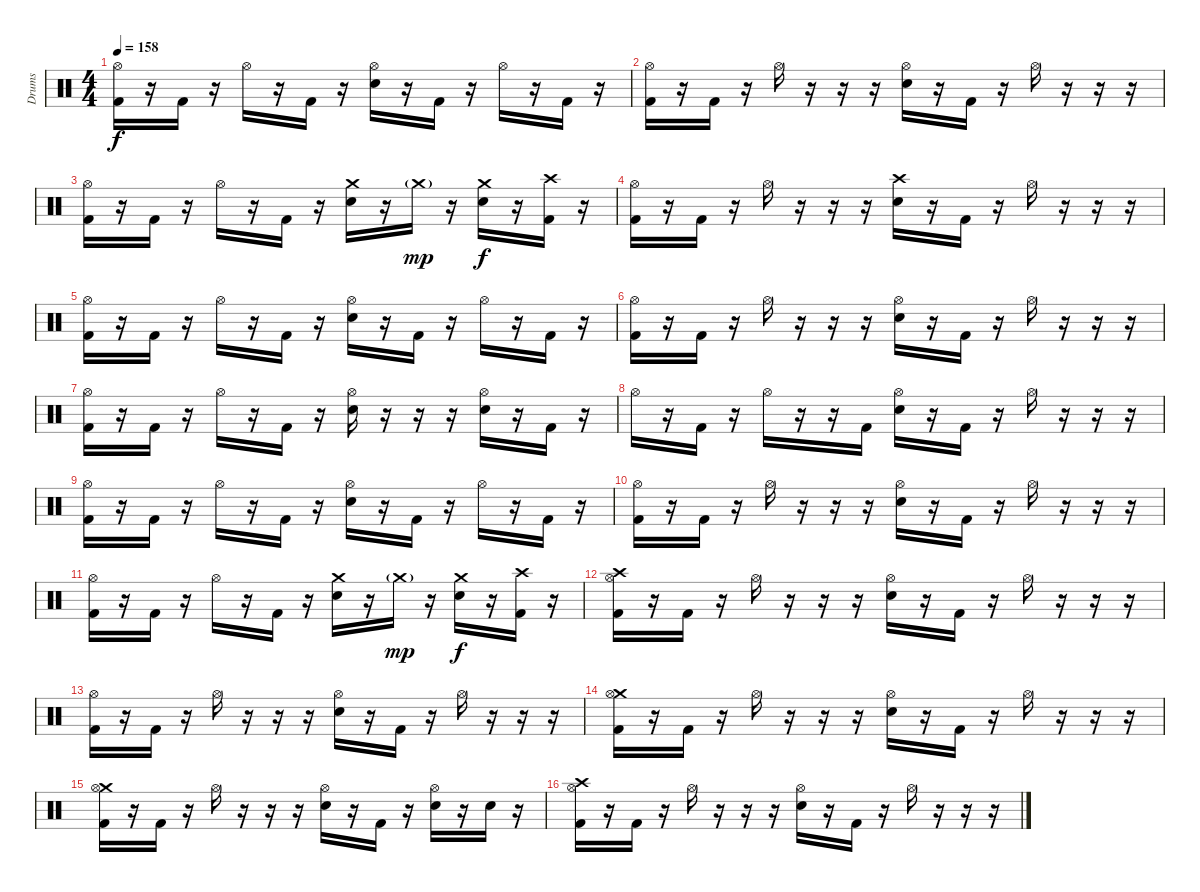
\track ("Drums" "Drums") {instrument percussion}
\staff {score}
\articulation defaults
\ts (4 4)
\tempo 158
\clef neutral
\ks c
("Hi-Hat (open)" "Kick (hit) 2").16{dy f} r.16 "Kick (hit) 2".16 r.16 "Hi-Hat (open)".16 r.16 "Kick (hit) 2".16 r.16 ("Hi-Hat (open)" "Snare (hit) 2").16 r.16 "Kick (hit) 2".16 r.16 "Hi-Hat (open)".16 r.16 "Kick (hit) 2".16 r.16 |
("Hi-Hat (open)" "Kick (hit) 2").16 r.16 "Kick (hit) 2".16 r.16 "Hi-Hat (open)".16 r.16 r.16 r.16 ("Hi-Hat (open)" "Snare (hit) 2").16 r.16 "Kick (hit) 2".16 r.16 "Hi-Hat (open)".16 r.16 r.16 r.16 |
("Hi-Hat (open)" "Kick (hit) 2").16 r.16 "Kick (hit) 2".16 r.16 "Hi-Hat (open)".16 r.16 "Kick (hit) 2".16 r.16 ("Crash medium (hit)" "Snare (hit) 2").16 r.16 "Crash medium (hit)"{g}.16{dy mp} r.16 ("Crash medium (hit)" "Snare (hit) 2").16{dy f} r.16 ("Crash high (hit)" "Kick (hit) 2").16 r.16 |
("Hi-Hat (open)" "Kick (hit) 2").16 r.16 "Kick (hit) 2".16 r.16 "Hi-Hat (open)".16 r.16 r.16 r.16 ("Crash high (hit)" "Snare (hit) 2").16 r.16 "Kick (hit) 2".16 r.16 "Hi-Hat (open)".16 r.16 r.16 r.16 |
("Hi-Hat (open)" "Kick (hit) 2").16 r.16 "Kick (hit) 2".16 r.16 "Hi-Hat (open)".16 r.16 "Kick (hit) 2".16 r.16 ("Hi-Hat (open)" "Snare (hit) 2").16 r.16 "Kick (hit) 2".16 r.16 "Hi-Hat (open)".16 r.16 "Kick (hit) 2".16 r.16 |
("Hi-Hat (open)" "Kick (hit) 2").16 r.16 "Kick (hit) 2".16 r.16 "Hi-Hat (open)".16 r.16 r.16 r.16 ("Hi-Hat (open)" "Snare (hit) 2").16 r.16 "Kick (hit) 2".16 r.16 "Hi-Hat (open)".16 r.16 r.16 r.16 |
("Hi-Hat (open)" "Kick (hit) 2").16 r.16 "Kick (hit) 2".16 r.16 "Hi-Hat (open)".16 r.16 "Kick (hit) 2".16 r.16 ("Hi-Hat (open)" "Snare (hit) 2").16 r.16 r.16 r.16 ("Hi-Hat (open)" "Snare (hit) 2").16 r.16 "Kick (hit) 2".16 r.16 |
"Hi-Hat (open)".16 r.16 "Kick (hit) 2".16 r.16 "Hi-Hat (open)".16 r.16 r.16 "Kick (hit) 2".16 ("Hi-Hat (open)" "Snare (hit) 2").16 r.16 "Kick (hit) 2".16 r.16 "Hi-Hat (open)".16 r.16 r.16 r.16 |
("Hi-Hat (open)" "Kick (hit) 2").16 r.16 "Kick (hit) 2".16 r.16 "Hi-Hat (open)".16 r.16 "Kick (hit) 2".16 r.16 ("Hi-Hat (open)" "Snare (hit) 2").16 r.16 "Kick (hit) 2".16 r.16 "Hi-Hat (open)".16 r.16 "Kick (hit) 2".16 r.16 |
("Hi-Hat (open)" "Kick (hit) 2").16 r.16 "Kick (hit) 2".16 r.16 "Hi-Hat (open)".16 r.16 r.16 r.16 ("Hi-Hat (open)" "Snare (hit) 2").16 r.16 "Kick (hit) 2".16 r.16 "Hi-Hat (open)".16 r.16 r.16 r.16 |
("Hi-Hat (open)" "Kick (hit) 2").16 r.16 "Kick (hit) 2".16 r.16 "Hi-Hat (open)".16 r.16 "Kick (hit) 2".16 r.16 ("Crash medium (hit)" "Snare (hit) 2").16 r.16 "Crash medium (hit)"{g}.16{dy mp} r.16 ("Crash medium (hit)" "Snare (hit) 2").16{dy f} r.16 ("Crash high (hit)" "Kick (hit) 2").16 r.16 |
("Crash high (hit)" "Hi-Hat (open)" "Kick (hit) 2").16 r.16 "Kick (hit) 2".16 r.16 "Hi-Hat (open)".16 r.16 r.16 r.16 ("Hi-Hat (open)" "Snare (hit) 2").16 r.16 "Kick (hit) 2".16 r.16 "Hi-Hat (open)".16 r.16 r.16 r.16 |
("Hi-Hat (open)" "Kick (hit) 2").16 r.16 "Kick (hit) 2".16 r.16 "Hi-Hat (open)".16 r.16 r.16 r.16 ("Hi-Hat (open)" "Snare (hit) 2").16 r.16 "Kick (hit) 2".16 r.16 "Hi-Hat (open)".16 r.16 r.16 r.16 |
("Crash medium (hit)" "Hi-Hat (open)" "Kick (hit) 2").16 r.16 "Kick (hit) 2".16 r.16 "Hi-Hat (open)".16 r.16 r.16 r.16 ("Hi-Hat (open)" "Snare (hit) 2").16 r.16 "Kick (hit) 2".16 r.16 "Hi-Hat (open)".16 r.16 r.16 r.16 |
("Crash medium (hit)" "Hi-Hat (open)" "Kick (hit) 2").16 r.16 "Kick (hit) 2".16 r.16 "Hi-Hat (open)".16 r.16 r.16 r.16 ("Hi-Hat (open)" "Snare (hit) 2").16 r.16 "Kick (hit) 2".16 r.16 ("Hi-Hat (open)" "Snare (hit) 2").16 r.16 "Snare (hit) 2".16 r.16 |
("Crash high (hit)" "Hi-Hat (open)" "Kick (hit) 2").16 r.16 "Kick (hit) 2".16 r.16 "Hi-Hat (open)".16 r.16 r.16 r.16 ("Hi-Hat (open)" "Snare (hit) 2").16 r.16 "Kick (hit) 2".16 r.16 "Hi-Hat (open)".16 r.16 r.16 r.16
